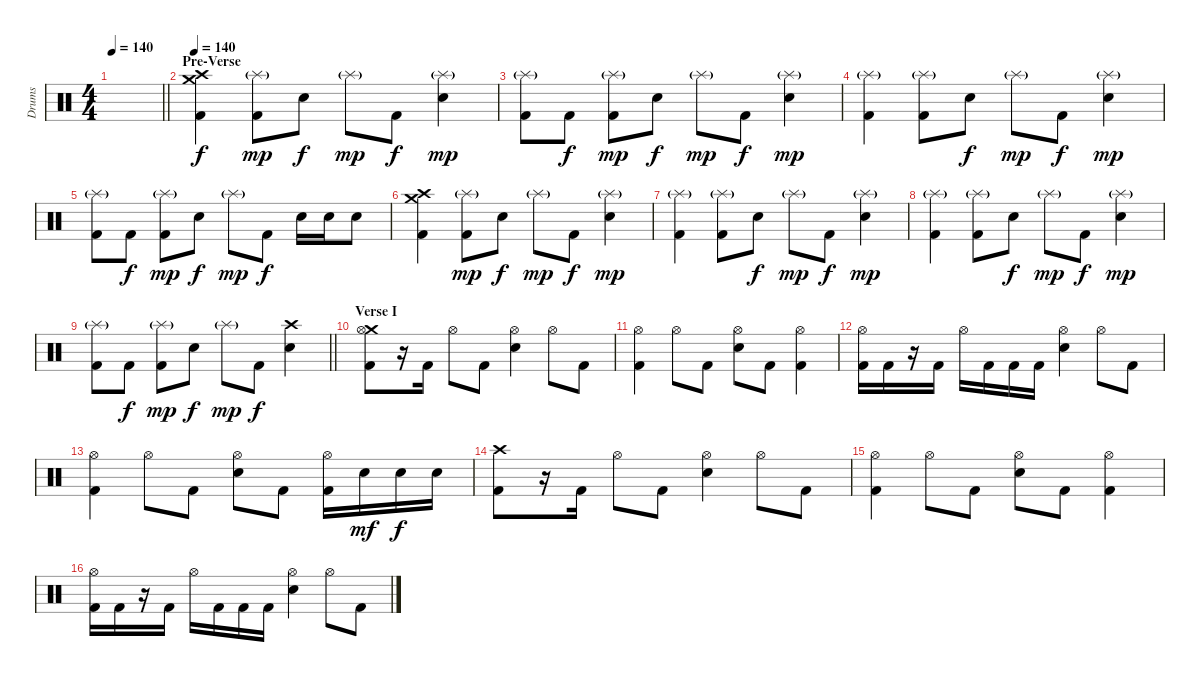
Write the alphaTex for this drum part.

\track ("Drums" "Drums") {instrument percussion}
\staff {score}
\articulation defaults
\ts (4 4)
\tempo 140
\clef neutral
\barLineRight lightlight
\ks c
|
\section ("" "Pre-Verse")
\tempo 140
("Crash medium (hit)" "Crash high (hit)" "Kick (hit) 2").4 ("Splash (hit)"{g} "Kick (hit) 2").8{dy mp} "Electric Snare (hit)".8{dy f} "Splash (hit)"{g}.8{dy mp} "Kick (hit) 2".8{dy f} ("Splash (hit)"{g} "Electric Snare (hit)").4{dy mp} |
("Splash (hit)"{g} "Kick (hit) 2").8 "Kick (hit) 2".8{dy f} ("Splash (hit)"{g} "Kick (hit) 2").8{dy mp} "Electric Snare (hit)".8{dy f} "Splash (hit)"{g}.8{dy mp} "Kick (hit) 2".8{dy f} ("Splash (hit)"{g} "Electric Snare (hit)").4{dy mp} |
("Splash (hit)"{g} "Kick (hit) 2").4 ("Splash (hit)"{g} "Kick (hit) 2").8 "Electric Snare (hit)".8{dy f} "Splash (hit)"{g}.8{dy mp} "Kick (hit) 2".8{dy f} ("Splash (hit)"{g} "Electric Snare (hit)").4{dy mp} |
("Splash (hit)"{g} "Kick (hit) 2").8 "Kick (hit) 2".8{dy f} ("Splash (hit)"{g} "Kick (hit) 2").8{dy mp} "Electric Snare (hit)".8{dy f} "Splash (hit)"{g}.8{dy mp} "Kick (hit) 2".8{dy f} "Electric Snare (hit)".16 "Electric Snare (hit)".16 "Electric Snare (hit)".8 |
("Crash medium (hit)" "Crash high (hit)" "Kick (hit) 2").4 ("Splash (hit)"{g} "Kick (hit) 2").8{dy mp} "Electric Snare (hit)".8{dy f} "Splash (hit)"{g}.8{dy mp} "Kick (hit) 2".8{dy f} ("Splash (hit)"{g} "Electric Snare (hit)").4{dy mp} |
("Splash (hit)"{g} "Kick (hit) 2").4 ("Splash (hit)"{g} "Kick (hit) 2").8 "Electric Snare (hit)".8{dy f} "Splash (hit)"{g}.8{dy mp} "Kick (hit) 2".8{dy f} ("Splash (hit)"{g} "Electric Snare (hit)").4{dy mp} |
("Splash (hit)"{g} "Kick (hit) 2").4 ("Splash (hit)"{g} "Kick (hit) 2").8 "Electric Snare (hit)".8{dy f} "Splash (hit)"{g}.8{dy mp} "Kick (hit) 2".8{dy f} ("Splash (hit)"{g} "Electric Snare (hit)").4{dy mp} |
\barLineRight lightlight
("Splash (hit)"{g} "Kick (hit) 2").8 "Kick (hit) 2".8{dy f} ("Splash (hit)"{g} "Kick (hit) 2").8{dy mp} "Electric Snare (hit)".8{dy f} "Splash (hit)"{g}.8{dy mp} "Kick (hit) 2".8{dy f} ("Crash high (hit)" "Electric Snare (hit)").4 |
\section ("" "Verse I")
("Crash medium (hit)" "Hi-Hat (open)" "Kick (hit) 2").8 r.16 "Kick (hit) 2".16 "Hi-Hat (open)".8 "Kick (hit) 2".8 ("Hi-Hat (open)" "Electric Snare (hit)").4 "Hi-Hat (open)".8 "Kick (hit) 2".8 |
("Hi-Hat (open)" "Kick (hit) 2").4 "Hi-Hat (open)".8 "Kick (hit) 2".8 ("Hi-Hat (open)" "Electric Snare (hit)").8 "Kick (hit) 2".8 ("Hi-Hat (open)" "Kick (hit) 2").4 |
("Hi-Hat (open)" "Kick (hit) 2").16 "Kick (hit) 2".16 r.16 "Kick (hit) 2".16 "Hi-Hat (open)".16 "Kick (hit) 2".16 "Kick (hit) 2".16 "Kick (hit) 2".16 ("Hi-Hat (open)" "Electric Snare (hit)").4 "Hi-Hat (open)".8 "Kick (hit) 2".8 |
("Hi-Hat (open)" "Kick (hit) 2").4 "Hi-Hat (open)".8 "Kick (hit) 2".8 ("Hi-Hat (open)" "Electric Snare (hit)").8 "Kick (hit) 2".8 ("Hi-Hat (open)" "Kick (hit) 2").16 "Electric Snare (hit)".16{dy mf} "Electric Snare (hit)".16{dy f} "Electric Snare (hit)".16 |
("Crash high (hit)" "Kick (hit) 2").8 r.16 "Kick (hit) 2".16 "Hi-Hat (open)".8 "Kick (hit) 2".8 ("Hi-Hat (open)" "Electric Snare (hit)").4 "Hi-Hat (open)".8 "Kick (hit) 2".8 |
("Hi-Hat (open)" "Kick (hit) 2").4 "Hi-Hat (open)".8 "Kick (hit) 2".8 ("Hi-Hat (open)" "Electric Snare (hit)").8 "Kick (hit) 2".8 ("Hi-Hat (open)" "Kick (hit) 2").4 |
("Hi-Hat (open)" "Kick (hit) 2").16 "Kick (hit) 2".16 r.16 "Kick (hit) 2".16 "Hi-Hat (open)".16 "Kick (hit) 2".16 "Kick (hit) 2".16 "Kick (hit) 2".16 ("Hi-Hat (open)" "Electric Snare (hit)").4 "Hi-Hat (open)".8 "Kick (hit) 2".8
